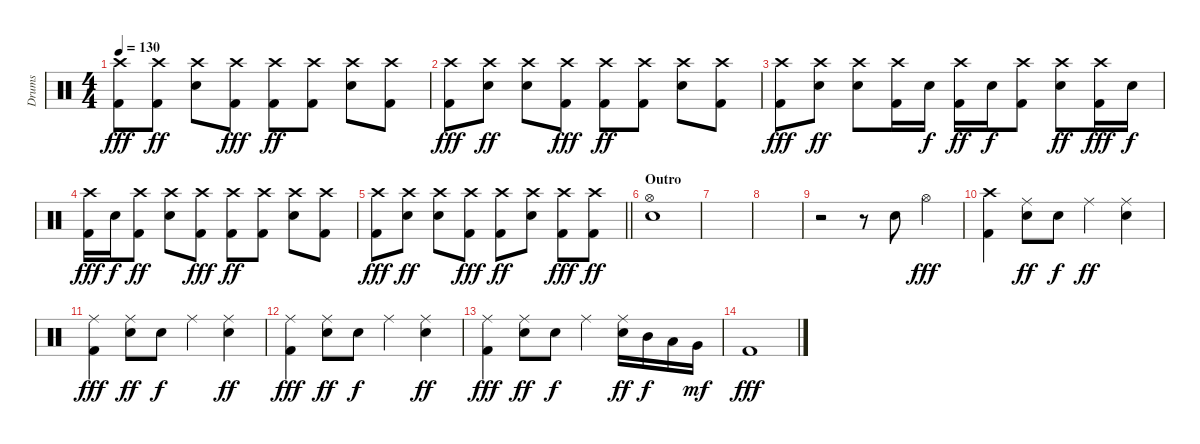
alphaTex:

\track ("Drums" "Drums") {instrument percussion}
\staff {score}
\articulation defaults
\ts (4 4)
\tempo 130
\clef neutral
\ks c
("Crash high (hit)" "Kick (hit) 2").8{dy fff} ("Crash high (hit)" "Kick (hit) 2").8{dy ff} ("Crash high (hit)" "Snare (hit) 2").8 ("Crash high (hit)" "Kick (hit) 2").8{dy fff} ("Crash high (hit)" "Kick (hit) 2").8{dy ff} ("Crash high (hit)" "Kick (hit) 2").8 ("Crash high (hit)" "Snare (hit) 2").8 ("Crash high (hit)" "Kick (hit) 2").8 |
("Crash high (hit)" "Kick (hit) 2").8{dy fff} ("Crash high (hit)" "Snare (hit) 2").8{dy ff} ("Crash high (hit)" "Snare (hit) 2").8 ("Crash high (hit)" "Kick (hit) 2").8{dy fff} ("Crash high (hit)" "Kick (hit) 2").8{dy ff} ("Crash high (hit)" "Kick (hit) 2").8 ("Crash high (hit)" "Snare (hit) 2").8 ("Crash high (hit)" "Kick (hit) 2").8 |
("Crash high (hit)" "Kick (hit) 2").8{dy fff} ("Crash high (hit)" "Snare (hit) 2").8{dy ff} ("Crash high (hit)" "Snare (hit) 2").8 ("Crash high (hit)" "Kick (hit) 2").16 "Snare (hit) 2".16{dy f} ("Crash high (hit)" "Kick (hit) 2").16{dy ff} "Snare (hit) 2".16{dy f} ("Crash high (hit)" "Kick (hit) 2").8 ("Crash high (hit)" "Snare (hit) 2").8{dy ff} ("Crash high (hit)" "Kick (hit) 2").16{dy fff} "Snare (hit) 2".16{dy f} |
("Crash high (hit)" "Kick (hit) 2").16{dy fff} "Snare (hit) 2".16{dy f} ("Crash high (hit)" "Kick (hit) 2").8{dy ff} ("Crash high (hit)" "Snare (hit) 2").8 ("Crash high (hit)" "Kick (hit) 2").8{dy fff} ("Crash high (hit)" "Kick (hit) 2").8{dy ff} ("Crash high (hit)" "Kick (hit) 2").8 ("Crash high (hit)" "Snare (hit) 2").8 ("Crash high (hit)" "Kick (hit) 2").8 |
\barLineRight lightlight
("Crash high (hit)" "Kick (hit) 2").8{dy fff} ("Crash high (hit)" "Snare (hit) 2").8{dy ff} ("Crash high (hit)" "Snare (hit) 2").8 ("Crash high (hit)" "Kick (hit) 2").8{dy fff} ("Crash high (hit)" "Kick (hit) 2").8{dy ff} ("Crash high (hit)" "Snare (hit) 2").8 ("Crash high (hit)" "Kick (hit) 2").8{dy fff} ("Crash high (hit)" "Kick (hit) 2").8{dy ff} |
\section ("" "Outro")
("Hi-Hat (open)" "Snare (hit) 2").1 |
|
|
r.2 r.8 "Snare (hit) 2".8 "Hi-Hat (open)".4{dy fff} |
("Crash high (hit)" "Kick (hit) 2").4 ("Ride (middle)" "Snare (hit) 2").8{dy ff} "Snare (hit) 2".8{dy f} "Ride (middle)".4{dy ff} ("Ride (middle)" "Snare (hit) 2").4 |
("Ride (middle)" "Kick (hit) 2").4{dy fff} ("Ride (middle)" "Snare (hit) 2").8{dy ff} "Snare (hit) 2".8{dy f} "Ride (middle)".4 ("Ride (middle)" "Snare (hit) 2").4{dy ff} |
("Ride (middle)" "Kick (hit) 2").4{dy fff} ("Ride (middle)" "Snare (hit) 2").8{dy ff} "Snare (hit) 2".8{dy f} "Ride (middle)".4 ("Ride (middle)" "Snare (hit) 2").4{dy ff} |
("Ride (middle)" "Kick (hit) 2").4{dy fff} ("Ride (middle)" "Snare (hit) 2").8{dy ff} "Snare (hit) 2".8{dy f} "Ride (middle)".4 ("Ride (middle)" "Snare (hit) 2").16{dy ff} "Mid Tom (hit)".16{dy f} "Low Tom (hit)".16 "Very Low Tom (hit)".16{dy mf} |
"Kick (hit) 2".1{dy fff}
